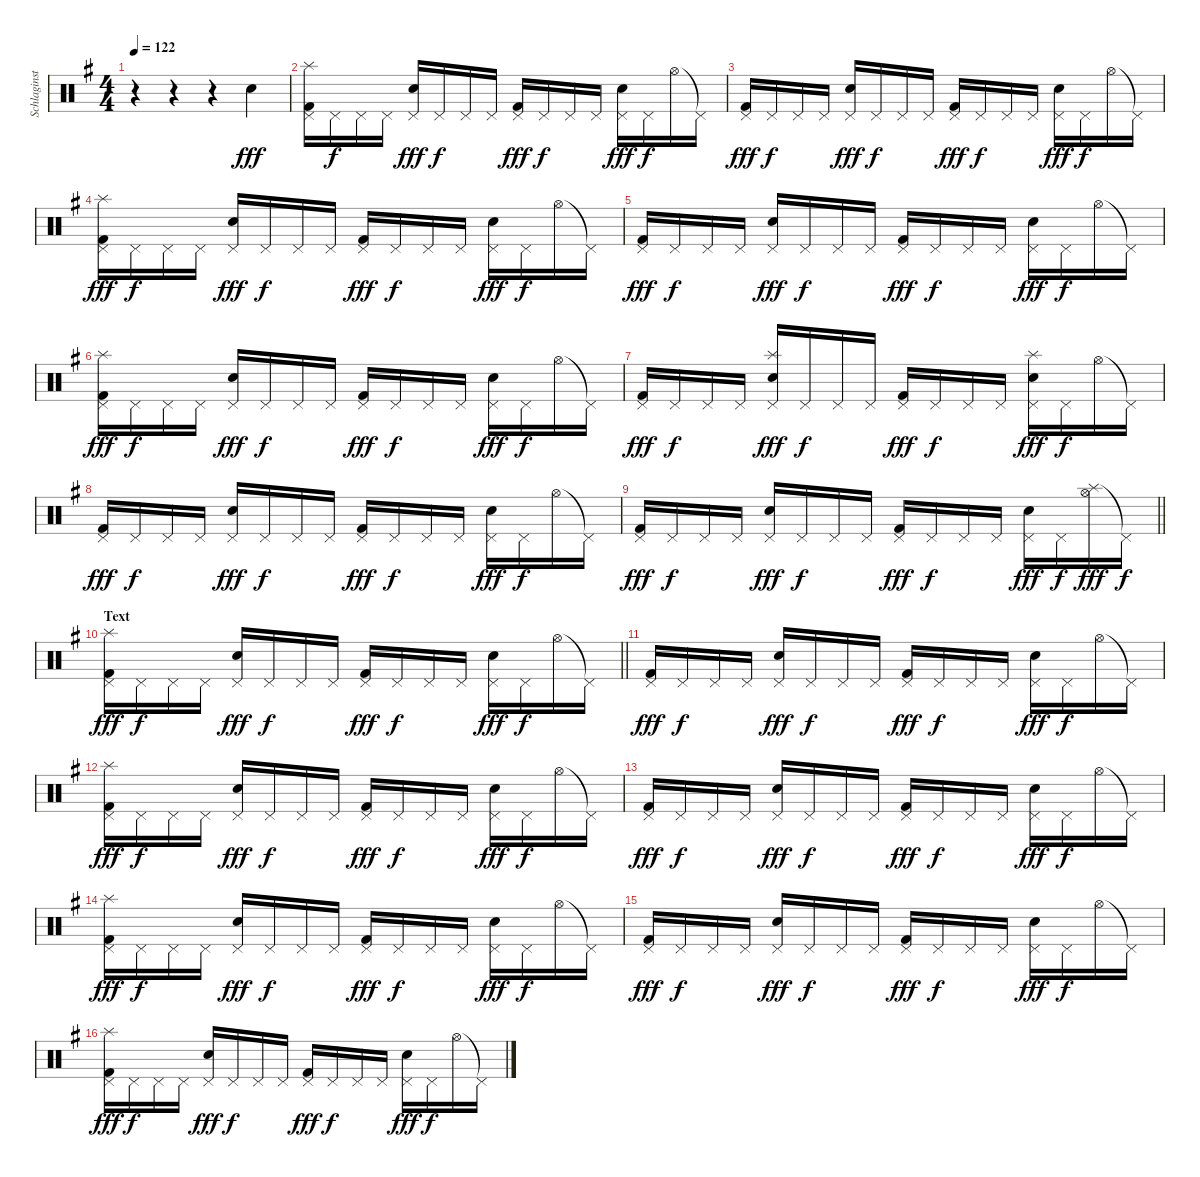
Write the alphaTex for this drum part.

\track ("Schlaginstrumente - Auswahl" "Schlaginst") {instrument percussion}
\staff {score}
\articulation defaults
\ts (4 4)
\tempo 122
\clef neutral
\ks g
r.4{dy fff} r.4 r.4 "Electric Snare (hit)".4 |
("Splash (hit)" "Pedal Hi-Hat (hit)" "Kick (hit) 2").16 "Pedal Hi-Hat (hit)".16{dy f} "Pedal Hi-Hat (hit)".16 "Pedal Hi-Hat (hit)".16 ("Pedal Hi-Hat (hit)" "Electric Snare (hit)").16{dy fff} "Pedal Hi-Hat (hit)".16{dy f} "Pedal Hi-Hat (hit)".16 "Pedal Hi-Hat (hit)".16 ("Pedal Hi-Hat (hit)" "Kick (hit) 2").16{dy fff} "Pedal Hi-Hat (hit)".16{dy f} "Pedal Hi-Hat (hit)".16 "Pedal Hi-Hat (hit)".16 ("Pedal Hi-Hat (hit)" "Electric Snare (hit)").16{dy fff} "Pedal Hi-Hat (hit)".16{dy f} "Hi-Hat (open)".16 "Pedal Hi-Hat (hit)"{t}.16 |
("Pedal Hi-Hat (hit)" "Kick (hit) 2").16{dy fff} "Pedal Hi-Hat (hit)".16{dy f} "Pedal Hi-Hat (hit)".16 "Pedal Hi-Hat (hit)".16 ("Pedal Hi-Hat (hit)" "Electric Snare (hit)").16{dy fff} "Pedal Hi-Hat (hit)".16{dy f} "Pedal Hi-Hat (hit)".16 "Pedal Hi-Hat (hit)".16 ("Pedal Hi-Hat (hit)" "Kick (hit) 2").16{dy fff} "Pedal Hi-Hat (hit)".16{dy f} "Pedal Hi-Hat (hit)".16 "Pedal Hi-Hat (hit)".16 ("Pedal Hi-Hat (hit)" "Electric Snare (hit)").16{dy fff} "Pedal Hi-Hat (hit)".16{dy f} "Hi-Hat (open)".16 "Pedal Hi-Hat (hit)"{t}.16 |
("Splash (hit)" "Pedal Hi-Hat (hit)" "Kick (hit) 2").16{dy fff} "Pedal Hi-Hat (hit)".16{dy f} "Pedal Hi-Hat (hit)".16 "Pedal Hi-Hat (hit)".16 ("Pedal Hi-Hat (hit)" "Electric Snare (hit)").16{dy fff} "Pedal Hi-Hat (hit)".16{dy f} "Pedal Hi-Hat (hit)".16 "Pedal Hi-Hat (hit)".16 ("Pedal Hi-Hat (hit)" "Kick (hit) 2").16{dy fff} "Pedal Hi-Hat (hit)".16{dy f} "Pedal Hi-Hat (hit)".16 "Pedal Hi-Hat (hit)".16 ("Pedal Hi-Hat (hit)" "Electric Snare (hit)").16{dy fff} "Pedal Hi-Hat (hit)".16{dy f} "Hi-Hat (open)".16 "Pedal Hi-Hat (hit)"{t}.16 |
("Pedal Hi-Hat (hit)" "Kick (hit) 2").16{dy fff} "Pedal Hi-Hat (hit)".16{dy f} "Pedal Hi-Hat (hit)".16 "Pedal Hi-Hat (hit)".16 ("Pedal Hi-Hat (hit)" "Electric Snare (hit)").16{dy fff} "Pedal Hi-Hat (hit)".16{dy f} "Pedal Hi-Hat (hit)".16 "Pedal Hi-Hat (hit)".16 ("Pedal Hi-Hat (hit)" "Kick (hit) 2").16{dy fff} "Pedal Hi-Hat (hit)".16{dy f} "Pedal Hi-Hat (hit)".16 "Pedal Hi-Hat (hit)".16 ("Pedal Hi-Hat (hit)" "Electric Snare (hit)").16{dy fff} "Pedal Hi-Hat (hit)".16{dy f} "Hi-Hat (open)".16 "Pedal Hi-Hat (hit)"{t}.16 |
("Splash (hit)" "Pedal Hi-Hat (hit)" "Kick (hit) 2").16{dy fff} "Pedal Hi-Hat (hit)".16{dy f} "Pedal Hi-Hat (hit)".16 "Pedal Hi-Hat (hit)".16 ("Pedal Hi-Hat (hit)" "Electric Snare (hit)").16{dy fff} "Pedal Hi-Hat (hit)".16{dy f} "Pedal Hi-Hat (hit)".16 "Pedal Hi-Hat (hit)".16 ("Pedal Hi-Hat (hit)" "Kick (hit) 2").16{dy fff} "Pedal Hi-Hat (hit)".16{dy f} "Pedal Hi-Hat (hit)".16 "Pedal Hi-Hat (hit)".16 ("Pedal Hi-Hat (hit)" "Electric Snare (hit)").16{dy fff} "Pedal Hi-Hat (hit)".16{dy f} "Hi-Hat (open)".16 "Pedal Hi-Hat (hit)"{t}.16 |
("Pedal Hi-Hat (hit)" "Kick (hit) 2").16{dy fff} "Pedal Hi-Hat (hit)".16{dy f} "Pedal Hi-Hat (hit)".16 "Pedal Hi-Hat (hit)".16 ("Splash (hit)" "Pedal Hi-Hat (hit)" "Electric Snare (hit)").16{dy fff} "Pedal Hi-Hat (hit)".16{dy f} "Pedal Hi-Hat (hit)".16 "Pedal Hi-Hat (hit)".16 ("Pedal Hi-Hat (hit)" "Kick (hit) 2").16{dy fff} "Pedal Hi-Hat (hit)".16{dy f} "Pedal Hi-Hat (hit)".16 "Pedal Hi-Hat (hit)".16 ("Splash (hit)" "Pedal Hi-Hat (hit)" "Electric Snare (hit)").16{dy fff} "Pedal Hi-Hat (hit)".16{dy f} "Hi-Hat (open)".16 "Pedal Hi-Hat (hit)"{t}.16 |
("Pedal Hi-Hat (hit)" "Kick (hit) 2").16{dy fff} "Pedal Hi-Hat (hit)".16{dy f} "Pedal Hi-Hat (hit)".16 "Pedal Hi-Hat (hit)".16 ("Pedal Hi-Hat (hit)" "Electric Snare (hit)").16{dy fff} "Pedal Hi-Hat (hit)".16{dy f} "Pedal Hi-Hat (hit)".16 "Pedal Hi-Hat (hit)".16 ("Pedal Hi-Hat (hit)" "Kick (hit) 2").16{dy fff} "Pedal Hi-Hat (hit)".16{dy f} "Pedal Hi-Hat (hit)".16 "Pedal Hi-Hat (hit)".16 ("Pedal Hi-Hat (hit)" "Electric Snare (hit)").16{dy fff} "Pedal Hi-Hat (hit)".16{dy f} "Hi-Hat (open)".16 "Pedal Hi-Hat (hit)"{t}.16 |
\barLineRight lightlight
("Pedal Hi-Hat (hit)" "Kick (hit) 2").16{dy fff} "Pedal Hi-Hat (hit)".16{dy f} "Pedal Hi-Hat (hit)".16 "Pedal Hi-Hat (hit)".16 ("Pedal Hi-Hat (hit)" "Electric Snare (hit)").16{dy fff} "Pedal Hi-Hat (hit)".16{dy f} "Pedal Hi-Hat (hit)".16 "Pedal Hi-Hat (hit)".16 ("Pedal Hi-Hat (hit)" "Kick (hit) 2").16{dy fff} "Pedal Hi-Hat (hit)".16{dy f} "Pedal Hi-Hat (hit)".16 "Pedal Hi-Hat (hit)".16 ("Pedal Hi-Hat (hit)" "Electric Snare (hit)").16{dy fff} "Pedal Hi-Hat (hit)".16{dy f} ("Splash (hit)" "Hi-Hat (open)").16{dy fff} "Pedal Hi-Hat (hit)"{t}.16{dy f} |
\section ("" "Text")
\barLineRight lightlight
("Splash (hit)" "Pedal Hi-Hat (hit)" "Kick (hit) 2").16{dy fff} "Pedal Hi-Hat (hit)".16{dy f} "Pedal Hi-Hat (hit)".16 "Pedal Hi-Hat (hit)".16 ("Pedal Hi-Hat (hit)" "Electric Snare (hit)").16{dy fff} "Pedal Hi-Hat (hit)".16{dy f} "Pedal Hi-Hat (hit)".16 "Pedal Hi-Hat (hit)".16 ("Pedal Hi-Hat (hit)" "Kick (hit) 2").16{dy fff} "Pedal Hi-Hat (hit)".16{dy f} "Pedal Hi-Hat (hit)".16 "Pedal Hi-Hat (hit)".16 ("Pedal Hi-Hat (hit)" "Electric Snare (hit)").16{dy fff} "Pedal Hi-Hat (hit)".16{dy f} "Hi-Hat (open)".16 "Pedal Hi-Hat (hit)"{t}.16 |
\section ("" "")
("Pedal Hi-Hat (hit)" "Kick (hit) 2").16{dy fff} "Pedal Hi-Hat (hit)".16{dy f} "Pedal Hi-Hat (hit)".16 "Pedal Hi-Hat (hit)".16 ("Pedal Hi-Hat (hit)" "Electric Snare (hit)").16{dy fff} "Pedal Hi-Hat (hit)".16{dy f} "Pedal Hi-Hat (hit)".16 "Pedal Hi-Hat (hit)".16 ("Pedal Hi-Hat (hit)" "Kick (hit) 2").16{dy fff} "Pedal Hi-Hat (hit)".16{dy f} "Pedal Hi-Hat (hit)".16 "Pedal Hi-Hat (hit)".16 ("Pedal Hi-Hat (hit)" "Electric Snare (hit)").16{dy fff} "Pedal Hi-Hat (hit)".16{dy f} "Hi-Hat (open)".16 "Pedal Hi-Hat (hit)"{t}.16 |
("Splash (hit)" "Pedal Hi-Hat (hit)" "Kick (hit) 2").16{dy fff} "Pedal Hi-Hat (hit)".16{dy f} "Pedal Hi-Hat (hit)".16 "Pedal Hi-Hat (hit)".16 ("Pedal Hi-Hat (hit)" "Electric Snare (hit)").16{dy fff} "Pedal Hi-Hat (hit)".16{dy f} "Pedal Hi-Hat (hit)".16 "Pedal Hi-Hat (hit)".16 ("Pedal Hi-Hat (hit)" "Kick (hit) 2").16{dy fff} "Pedal Hi-Hat (hit)".16{dy f} "Pedal Hi-Hat (hit)".16 "Pedal Hi-Hat (hit)".16 ("Pedal Hi-Hat (hit)" "Electric Snare (hit)").16{dy fff} "Pedal Hi-Hat (hit)".16{dy f} "Hi-Hat (open)".16 "Pedal Hi-Hat (hit)"{t}.16 |
("Pedal Hi-Hat (hit)" "Kick (hit) 2").16{dy fff} "Pedal Hi-Hat (hit)".16{dy f} "Pedal Hi-Hat (hit)".16 "Pedal Hi-Hat (hit)".16 ("Pedal Hi-Hat (hit)" "Electric Snare (hit)").16{dy fff} "Pedal Hi-Hat (hit)".16{dy f} "Pedal Hi-Hat (hit)".16 "Pedal Hi-Hat (hit)".16 ("Pedal Hi-Hat (hit)" "Kick (hit) 2").16{dy fff} "Pedal Hi-Hat (hit)".16{dy f} "Pedal Hi-Hat (hit)".16 "Pedal Hi-Hat (hit)".16 ("Pedal Hi-Hat (hit)" "Electric Snare (hit)").16{dy fff} "Pedal Hi-Hat (hit)".16{dy f} "Hi-Hat (open)".16 "Pedal Hi-Hat (hit)"{t}.16 |
("Splash (hit)" "Pedal Hi-Hat (hit)" "Kick (hit) 2").16{dy fff} "Pedal Hi-Hat (hit)".16{dy f} "Pedal Hi-Hat (hit)".16 "Pedal Hi-Hat (hit)".16 ("Pedal Hi-Hat (hit)" "Electric Snare (hit)").16{dy fff} "Pedal Hi-Hat (hit)".16{dy f} "Pedal Hi-Hat (hit)".16 "Pedal Hi-Hat (hit)".16 ("Pedal Hi-Hat (hit)" "Kick (hit) 2").16{dy fff} "Pedal Hi-Hat (hit)".16{dy f} "Pedal Hi-Hat (hit)".16 "Pedal Hi-Hat (hit)".16 ("Pedal Hi-Hat (hit)" "Electric Snare (hit)").16{dy fff} "Pedal Hi-Hat (hit)".16{dy f} "Hi-Hat (open)".16 "Pedal Hi-Hat (hit)"{t}.16 |
("Pedal Hi-Hat (hit)" "Kick (hit) 2").16{dy fff} "Pedal Hi-Hat (hit)".16{dy f} "Pedal Hi-Hat (hit)".16 "Pedal Hi-Hat (hit)".16 ("Pedal Hi-Hat (hit)" "Electric Snare (hit)").16{dy fff} "Pedal Hi-Hat (hit)".16{dy f} "Pedal Hi-Hat (hit)".16 "Pedal Hi-Hat (hit)".16 ("Pedal Hi-Hat (hit)" "Kick (hit) 2").16{dy fff} "Pedal Hi-Hat (hit)".16{dy f} "Pedal Hi-Hat (hit)".16 "Pedal Hi-Hat (hit)".16 ("Pedal Hi-Hat (hit)" "Electric Snare (hit)").16{dy fff} "Pedal Hi-Hat (hit)".16{dy f} "Hi-Hat (open)".16 "Pedal Hi-Hat (hit)"{t}.16 |
("Splash (hit)" "Pedal Hi-Hat (hit)" "Kick (hit) 2").16{dy fff} "Pedal Hi-Hat (hit)".16{dy f} "Pedal Hi-Hat (hit)".16 "Pedal Hi-Hat (hit)".16 ("Pedal Hi-Hat (hit)" "Electric Snare (hit)").16{dy fff} "Pedal Hi-Hat (hit)".16{dy f} "Pedal Hi-Hat (hit)".16 "Pedal Hi-Hat (hit)".16 ("Pedal Hi-Hat (hit)" "Kick (hit) 2").16{dy fff} "Pedal Hi-Hat (hit)".16{dy f} "Pedal Hi-Hat (hit)".16 "Pedal Hi-Hat (hit)".16 ("Pedal Hi-Hat (hit)" "Electric Snare (hit)").16{dy fff} "Pedal Hi-Hat (hit)".16{dy f} "Hi-Hat (open)".16 "Pedal Hi-Hat (hit)"{t}.16
